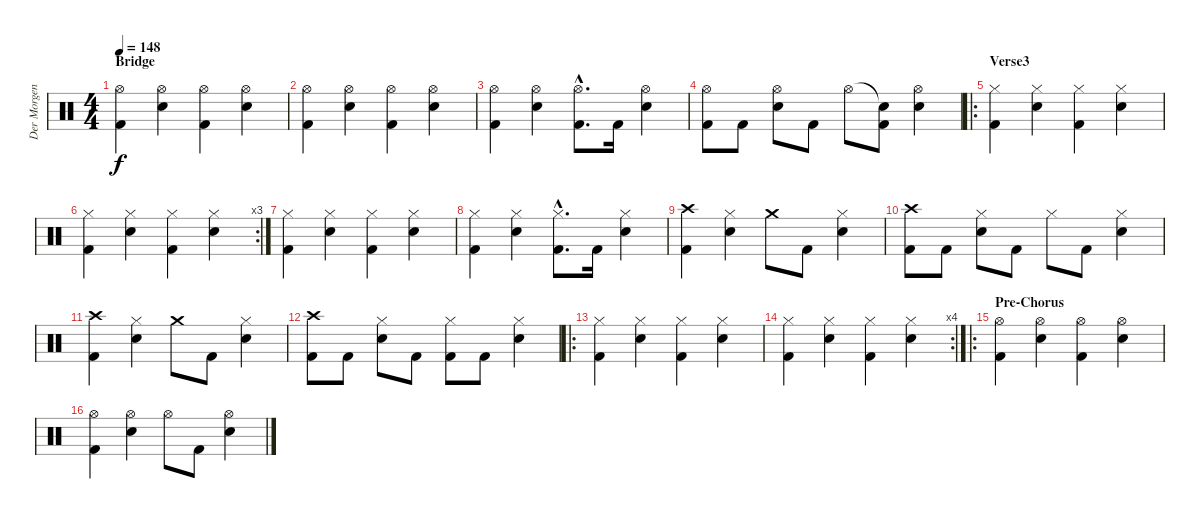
\track ("Der Morgenstern" "Der Morgen") {instrument percussion}
\staff {score}
\articulation defaults
\ts (4 4)
\section ("" "Bridge")
\tempo 148
\clef neutral
\ks c
("Hi-Hat (open)" "Kick (hit) 2").4{dy f} ("Snare (hit) 2" "Hi-Hat (open)").4 ("Hi-Hat (open)" "Kick (hit) 2").4 ("Hi-Hat (open)" "Snare (hit) 2").4 |
("Hi-Hat (open)" "Kick (hit) 2").4 ("Snare (hit) 2" "Hi-Hat (open)").4 ("Hi-Hat (open)" "Kick (hit) 2").4 ("Hi-Hat (open)" "Snare (hit) 2").4 |
("Hi-Hat (open)" "Kick (hit) 2").4 ("Snare (hit) 2" "Hi-Hat (open)").4 ("Hi-Hat (open)"{hac} "Kick (hit) 2"{hac}).8{d} "Kick (hit) 2".16 ("Hi-Hat (open)" "Snare (hit) 2").4 |
("Hi-Hat (open)" "Kick (hit) 2").8 "Kick (hit) 2".8 ("Hi-Hat (open)" "Snare (hit) 2").8 "Kick (hit) 2".8 "Hi-Hat (open)".8 ("Snare (hit)"{t} "Kick (hit) 2").8 ("Hi-Hat (open)" "Snare (hit) 2").4 |
\ro
\section ("" "Verse3")
("Hi-Hat (closed)" "Kick (hit) 2").4 ("Hi-Hat (closed)" "Snare (hit) 2").4 ("Hi-Hat (closed)" "Kick (hit) 2").4 ("Hi-Hat (closed)" "Snare (hit) 2").4 |
\rc 3
("Hi-Hat (closed)" "Kick (hit) 2").4 ("Hi-Hat (closed)" "Snare (hit) 2").4 ("Hi-Hat (closed)" "Kick (hit) 2").4 ("Hi-Hat (closed)" "Snare (hit) 2").4 |
("Hi-Hat (closed)" "Kick (hit) 2").4 ("Hi-Hat (closed)" "Snare (hit) 2").4 ("Hi-Hat (closed)" "Kick (hit) 2").4 ("Hi-Hat (closed)" "Snare (hit) 2").4 |
("Hi-Hat (closed)" "Kick (hit) 2").4 ("Snare (hit) 2" "Hi-Hat (closed)").4 ("Hi-Hat (closed)"{hac} "Kick (hit) 2"{hac}).8{d} "Kick (hit) 2".16 ("Hi-Hat (closed)" "Snare (hit) 2").4 |
("Crash high (hit)" "Kick (hit) 2").4 ("Snare (hit) 2" "Hi-Hat (closed)").4 "Crash medium (hit)".8 "Kick (hit) 2".8 ("Hi-Hat (closed)" "Snare (hit) 2").4 |
("Crash high (hit)" "Kick (hit) 2").8 "Kick (hit) 2".8 ("Hi-Hat (closed)" "Snare (hit) 2").8 "Kick (hit) 2".8 "Hi-Hat (closed)".8 "Kick (hit) 2".8 ("Hi-Hat (closed)" "Snare (hit) 2").4 |
("Crash high (hit)" "Kick (hit) 2").4 ("Snare (hit) 2" "Hi-Hat (closed)").4 "Crash medium (hit)".8 "Kick (hit) 2".8 ("Hi-Hat (closed)" "Snare (hit) 2").4 |
("Crash high (hit)" "Kick (hit) 2").8 "Kick (hit) 2".8 ("Hi-Hat (closed)" "Snare (hit) 2").8 "Kick (hit) 2".8 ("Hi-Hat (closed)" "Kick (hit) 2").8 "Kick (hit) 2".8 ("Hi-Hat (closed)" "Snare (hit) 2").4 |
\ro
("Hi-Hat (closed)" "Kick (hit) 2").4 ("Hi-Hat (closed)" "Snare (hit) 2").4 ("Hi-Hat (closed)" "Kick (hit) 2").4 ("Hi-Hat (closed)" "Snare (hit) 2").4 |
\rc 4
("Hi-Hat (closed)" "Kick (hit) 2").4 ("Hi-Hat (closed)" "Snare (hit) 2").4 ("Hi-Hat (closed)" "Kick (hit) 2").4 ("Hi-Hat (closed)" "Snare (hit) 2").4 |
\ro
\section ("" "Pre-Chorus")
("Hi-Hat (open)" "Kick (hit) 2").4 ("Hi-Hat (open)" "Snare (hit) 2").4 ("Hi-Hat (open)" "Kick (hit) 2").4 ("Hi-Hat (open)" "Snare (hit) 2").4 |
("Hi-Hat (open)" "Kick (hit) 2").4 ("Hi-Hat (open)" "Snare (hit) 2").4 "Hi-Hat (open)".8 "Kick (hit) 2".8 ("Hi-Hat (open)" "Snare (hit) 2").4
